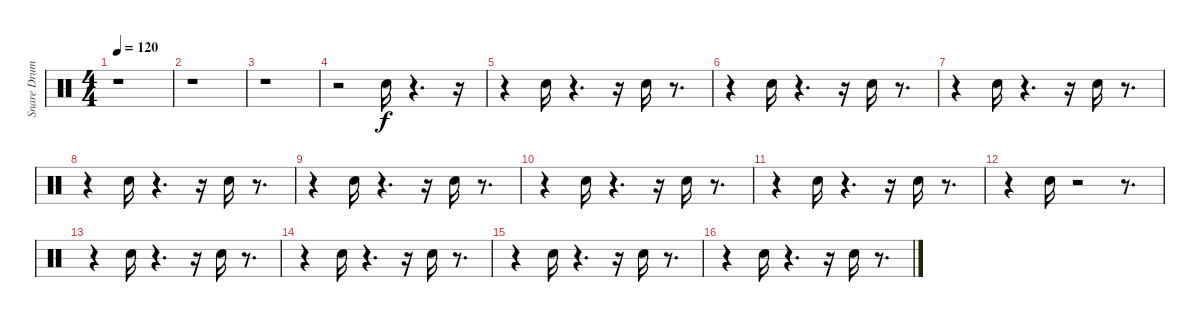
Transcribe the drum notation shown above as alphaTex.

\track ("Snare Drum" "Snare Drum") {instrument percussion}
\staff {score}
\articulation defaults
\ts (4 4)
\tempo 120
\clef neutral
\ks c
r.1{dy f} |
r.1 |
r.1 |
r.2 "Snare (hit) 2".16 r.4{d} r.16 |
r.4 "Snare (hit) 2".16 r.4{d} r.16 "Snare (hit) 2".16 r.8{d} |
r.4 "Snare (hit) 2".16 r.4{d} r.16 "Snare (hit) 2".16 r.8{d} |
r.4 "Snare (hit) 2".16 r.4{d} r.16 "Snare (hit) 2".16 r.8{d} |
r.4 "Snare (hit) 2".16 r.4{d} r.16 "Snare (hit) 2".16 r.8{d} |
r.4 "Snare (hit) 2".16 r.4{d} r.16 "Snare (hit) 2".16 r.8{d} |
r.4 "Snare (hit) 2".16 r.4{d} r.16 "Snare (hit) 2".16 r.8{d} |
r.4 "Snare (hit) 2".16 r.4{d} r.16 "Snare (hit) 2".16 r.8{d} |
r.4 "Snare (hit) 2".16 r.2 r.8{d} |
r.4 "Snare (hit) 2".16 r.4{d} r.16 "Snare (hit) 2".16 r.8{d} |
r.4 "Snare (hit) 2".16 r.4{d} r.16 "Snare (hit) 2".16 r.8{d} |
r.4 "Snare (hit) 2".16 r.4{d} r.16 "Snare (hit) 2".16 r.8{d} |
r.4 "Snare (hit) 2".16 r.4{d} r.16 "Snare (hit) 2".16 r.8{d}
